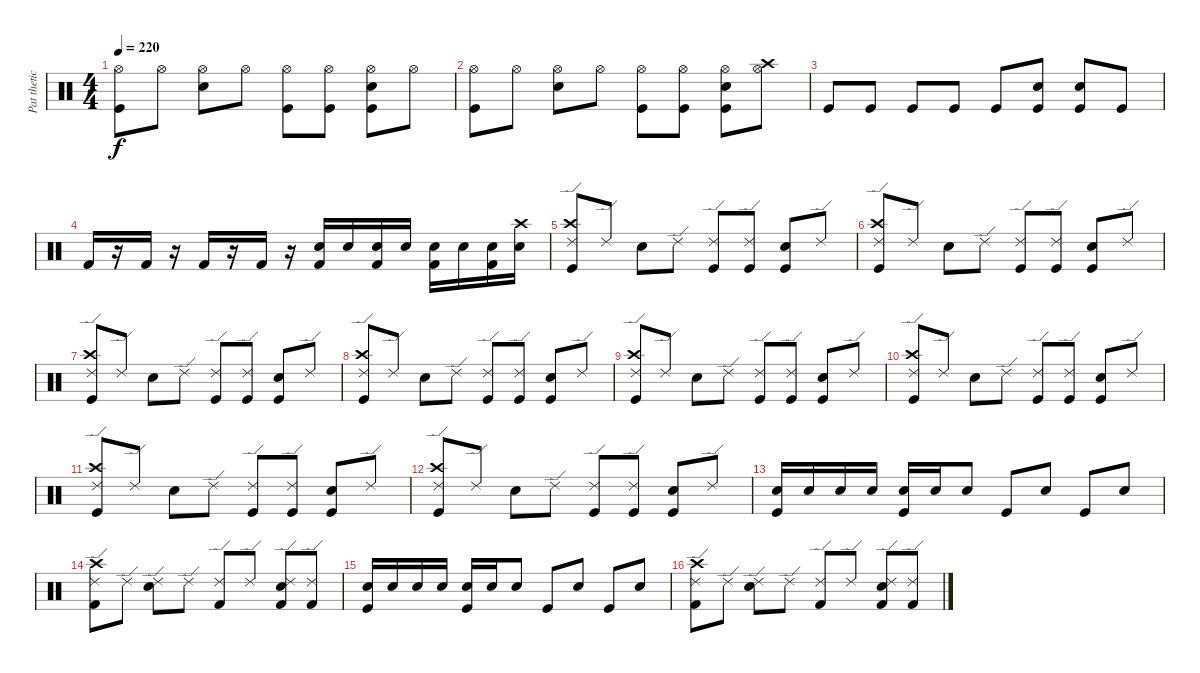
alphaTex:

\track ("Pat thetic (Drums)" "Pat thetic") {instrument percussion}
\staff {score}
\articulation defaults
\ts (4 4)
\tempo 220
\clef neutral
\ks c
("Kick (hit)" "Hi-Hat (open)").8{dy f} "Hi-Hat (open)".8 ("Electric Snare (hit)" "Hi-Hat (open)").8 "Hi-Hat (open)".8 ("Kick (hit)" "Hi-Hat (open)").8 ("Kick (hit)" "Hi-Hat (open)").8 ("Kick (hit)" "Electric Snare (hit)" "Hi-Hat (open)").8 "Hi-Hat (open)".8 |
("Kick (hit)" "Hi-Hat (open)").8 "Hi-Hat (open)".8 ("Electric Snare (hit)" "Hi-Hat (open)").8 "Hi-Hat (open)".8 ("Kick (hit)" "Hi-Hat (open)").8 ("Kick (hit)" "Hi-Hat (open)").8 ("Kick (hit)" "Electric Snare (hit)" "Hi-Hat (open)").8 ("Crash high (hit)" "Hi-Hat (open)").8 |
"Kick (hit)".8 "Kick (hit)".8 "Kick (hit)".8 "Kick (hit)".8 "Kick (hit)".8 ("Kick (hit)" "Electric Snare (hit)").8 ("Kick (hit)" "Electric Snare (hit)").8 "Kick (hit)".8 |
"Kick (hit) 2".16 r.16 "Kick (hit) 2".16 r.16 "Kick (hit) 2".16 r.16 "Kick (hit) 2".16 r.16 ("Kick (hit) 2" "Electric Snare (hit)").16 "Electric Snare (hit)".16 ("Kick (hit) 2" "Electric Snare (hit)").16 "Electric Snare (hit)".16 ("Kick (hit) 2" "Electric Snare (hit)").16 "Electric Snare (hit)".16 ("Kick (hit) 2" "Electric Snare (hit)").16 ("Electric Snare (hit)" "Crash high (hit)").16 |
("Kick (hit)" "Crash high (hit)" "Ride (edge) 2").8 "Ride (edge) 2".8 "Electric Snare (hit)".8 "Ride (edge) 2".8 ("Kick (hit)" "Ride (edge) 2").8 ("Kick (hit)" "Ride (edge) 2").8 ("Kick (hit)" "Electric Snare (hit)").8 "Ride (edge) 2".8 |
("Kick (hit)" "Crash high (hit)" "Ride (edge) 2").8 "Ride (edge) 2".8 "Electric Snare (hit)".8 "Ride (edge) 2".8 ("Kick (hit)" "Ride (edge) 2").8 ("Kick (hit)" "Ride (edge) 2").8 ("Kick (hit)" "Electric Snare (hit)").8 "Ride (edge) 2".8 |
("Kick (hit)" "Crash high (hit)" "Ride (edge) 2").8 "Ride (edge) 2".8 "Electric Snare (hit)".8 "Ride (edge) 2".8 ("Kick (hit)" "Ride (edge) 2").8 ("Kick (hit)" "Ride (edge) 2").8 ("Kick (hit)" "Electric Snare (hit)").8 "Ride (edge) 2".8 |
("Kick (hit)" "Crash high (hit)" "Ride (edge) 2").8 "Ride (edge) 2".8 "Electric Snare (hit)".8 "Ride (edge) 2".8 ("Kick (hit)" "Ride (edge) 2").8 ("Kick (hit)" "Ride (edge) 2").8 ("Kick (hit)" "Electric Snare (hit)").8 "Ride (edge) 2".8 |
("Kick (hit)" "Crash high (hit)" "Ride (edge) 2").8 "Ride (edge) 2".8 "Electric Snare (hit)".8 "Ride (edge) 2".8 ("Kick (hit)" "Ride (edge) 2").8 ("Kick (hit)" "Ride (edge) 2").8 ("Kick (hit)" "Electric Snare (hit)").8 "Ride (edge) 2".8 |
("Kick (hit)" "Crash high (hit)" "Ride (edge) 2").8 "Ride (edge) 2".8 "Electric Snare (hit)".8 "Ride (edge) 2".8 ("Kick (hit)" "Ride (edge) 2").8 ("Kick (hit)" "Ride (edge) 2").8 ("Kick (hit)" "Electric Snare (hit)").8 "Ride (edge) 2".8 |
("Kick (hit)" "Crash high (hit)" "Ride (edge) 2").8 "Ride (edge) 2".8 "Electric Snare (hit)".8 "Ride (edge) 2".8 ("Kick (hit)" "Ride (edge) 2").8 ("Kick (hit)" "Ride (edge) 2").8 ("Kick (hit)" "Electric Snare (hit)").8 "Ride (edge) 2".8 |
("Kick (hit)" "Crash high (hit)" "Ride (edge) 2").8 "Ride (edge) 2".8 "Electric Snare (hit)".8 "Ride (edge) 2".8 ("Kick (hit)" "Ride (edge) 2").8 ("Kick (hit)" "Ride (edge) 2").8 ("Kick (hit)" "Electric Snare (hit)").8 "Ride (edge) 2".8 |
("Kick (hit)" "Electric Snare (hit)").16 "Electric Snare (hit)".16 "Electric Snare (hit)".16 "Electric Snare (hit)".16 ("Kick (hit)" "Electric Snare (hit)").16 "Electric Snare (hit)".16 "Electric Snare (hit)".8 "Kick (hit)".8 "Electric Snare (hit)".8 "Kick (hit)".8 "Electric Snare (hit)".8 |
("Kick (hit) 2" "Crash high (hit)" "Ride (edge) 2").8 "Ride (edge) 2".8 ("Electric Snare (hit)" "Ride (edge) 2").8 "Ride (edge) 2".8 ("Kick (hit) 2" "Ride (edge) 2").8 "Ride (edge) 2".8 ("Kick (hit) 2" "Electric Snare (hit)" "Ride (edge) 2").8 ("Kick (hit) 2" "Ride (edge) 2").8 |
("Kick (hit)" "Electric Snare (hit)").16 "Electric Snare (hit)".16 "Electric Snare (hit)".16 "Electric Snare (hit)".16 ("Kick (hit)" "Electric Snare (hit)").16 "Electric Snare (hit)".16 "Electric Snare (hit)".8 "Kick (hit)".8 "Electric Snare (hit)".8 "Kick (hit)".8 "Electric Snare (hit)".8 |
("Kick (hit) 2" "Crash high (hit)" "Ride (edge) 2").8 "Ride (edge) 2".8 ("Electric Snare (hit)" "Ride (edge) 2").8 "Ride (edge) 2".8 ("Kick (hit) 2" "Ride (edge) 2").8 "Ride (edge) 2".8 ("Kick (hit) 2" "Electric Snare (hit)" "Ride (edge) 2").8 ("Kick (hit) 2" "Ride (edge) 2").8
